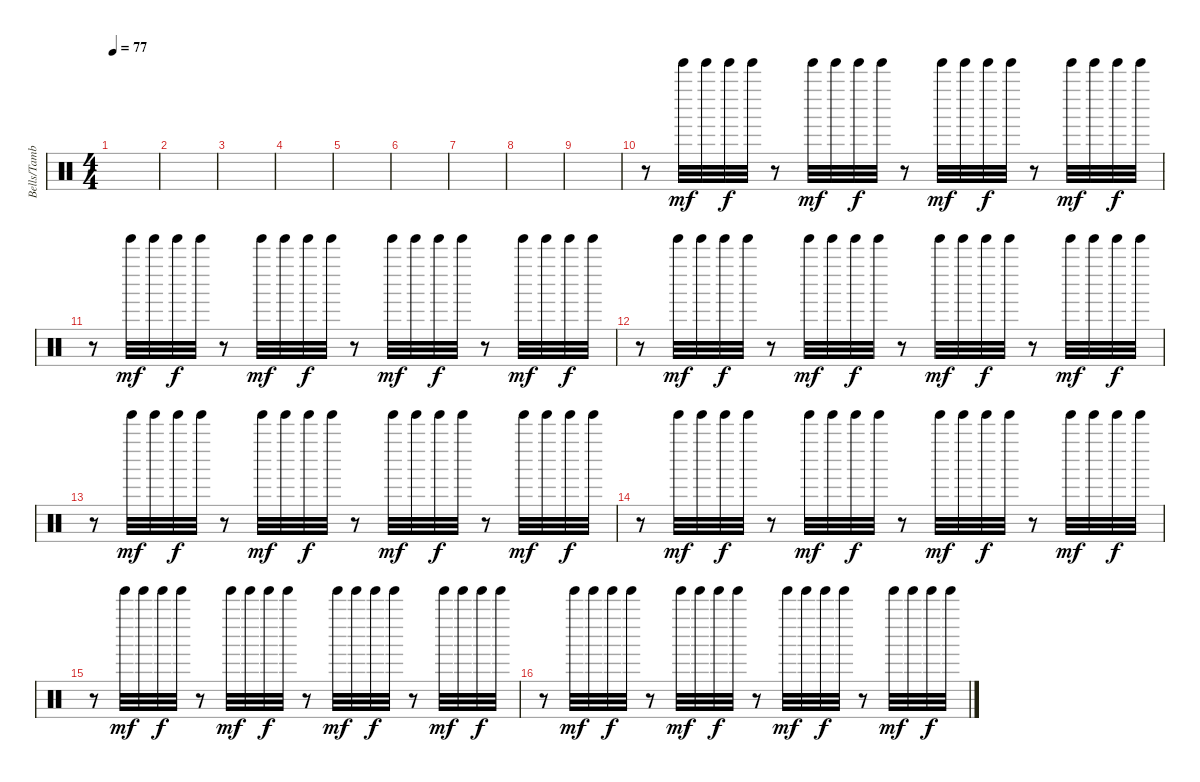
\track ("Bells/Tambo" "Bells/Tamb") {instrument percussion}
\staff {score}
\articulation defaults
\ts (4 4)
\tempo 77
\clef neutral
\ks c
|
|
|
|
|
|
|
|
|
r.8 "Tinkle Bell (hit)".32{dy mf} "Tinkle Bell (hit)".32 "Tinkle Bell (hit)".32{dy f} "Tinkle Bell (hit)".32 r.8 "Tinkle Bell (hit)".32{dy mf} "Tinkle Bell (hit)".32 "Tinkle Bell (hit)".32{dy f} "Tinkle Bell (hit)".32 r.8 "Tinkle Bell (hit)".32{dy mf} "Tinkle Bell (hit)".32 "Tinkle Bell (hit)".32{dy f} "Tinkle Bell (hit)".32 r.8 "Tinkle Bell (hit)".32{dy mf} "Tinkle Bell (hit)".32 "Tinkle Bell (hit)".32{dy f} "Tinkle Bell (hit)".32 |
r.8 "Tinkle Bell (hit)".32{dy mf} "Tinkle Bell (hit)".32 "Tinkle Bell (hit)".32{dy f} "Tinkle Bell (hit)".32 r.8 "Tinkle Bell (hit)".32{dy mf} "Tinkle Bell (hit)".32 "Tinkle Bell (hit)".32{dy f} "Tinkle Bell (hit)".32 r.8 "Tinkle Bell (hit)".32{dy mf} "Tinkle Bell (hit)".32 "Tinkle Bell (hit)".32{dy f} "Tinkle Bell (hit)".32 r.8 "Tinkle Bell (hit)".32{dy mf} "Tinkle Bell (hit)".32 "Tinkle Bell (hit)".32{dy f} "Tinkle Bell (hit)".32 |
r.8 "Tinkle Bell (hit)".32{dy mf} "Tinkle Bell (hit)".32 "Tinkle Bell (hit)".32{dy f} "Tinkle Bell (hit)".32 r.8 "Tinkle Bell (hit)".32{dy mf} "Tinkle Bell (hit)".32 "Tinkle Bell (hit)".32{dy f} "Tinkle Bell (hit)".32 r.8 "Tinkle Bell (hit)".32{dy mf} "Tinkle Bell (hit)".32 "Tinkle Bell (hit)".32{dy f} "Tinkle Bell (hit)".32 r.8 "Tinkle Bell (hit)".32{dy mf} "Tinkle Bell (hit)".32 "Tinkle Bell (hit)".32{dy f} "Tinkle Bell (hit)".32 |
r.8 "Tinkle Bell (hit)".32{dy mf} "Tinkle Bell (hit)".32 "Tinkle Bell (hit)".32{dy f} "Tinkle Bell (hit)".32 r.8 "Tinkle Bell (hit)".32{dy mf} "Tinkle Bell (hit)".32 "Tinkle Bell (hit)".32{dy f} "Tinkle Bell (hit)".32 r.8 "Tinkle Bell (hit)".32{dy mf} "Tinkle Bell (hit)".32 "Tinkle Bell (hit)".32{dy f} "Tinkle Bell (hit)".32 r.8 "Tinkle Bell (hit)".32{dy mf} "Tinkle Bell (hit)".32 "Tinkle Bell (hit)".32{dy f} "Tinkle Bell (hit)".32 |
r.8 "Tinkle Bell (hit)".32{dy mf} "Tinkle Bell (hit)".32 "Tinkle Bell (hit)".32{dy f} "Tinkle Bell (hit)".32 r.8 "Tinkle Bell (hit)".32{dy mf} "Tinkle Bell (hit)".32 "Tinkle Bell (hit)".32{dy f} "Tinkle Bell (hit)".32 r.8 "Tinkle Bell (hit)".32{dy mf} "Tinkle Bell (hit)".32 "Tinkle Bell (hit)".32{dy f} "Tinkle Bell (hit)".32 r.8 "Tinkle Bell (hit)".32{dy mf} "Tinkle Bell (hit)".32 "Tinkle Bell (hit)".32{dy f} "Tinkle Bell (hit)".32 |
r.8 "Tinkle Bell (hit)".32{dy mf} "Tinkle Bell (hit)".32 "Tinkle Bell (hit)".32{dy f} "Tinkle Bell (hit)".32 r.8 "Tinkle Bell (hit)".32{dy mf} "Tinkle Bell (hit)".32 "Tinkle Bell (hit)".32{dy f} "Tinkle Bell (hit)".32 r.8 "Tinkle Bell (hit)".32{dy mf} "Tinkle Bell (hit)".32 "Tinkle Bell (hit)".32{dy f} "Tinkle Bell (hit)".32 r.8 "Tinkle Bell (hit)".32{dy mf} "Tinkle Bell (hit)".32 "Tinkle Bell (hit)".32{dy f} "Tinkle Bell (hit)".32 |
r.8 "Tinkle Bell (hit)".32{dy mf} "Tinkle Bell (hit)".32 "Tinkle Bell (hit)".32{dy f} "Tinkle Bell (hit)".32 r.8 "Tinkle Bell (hit)".32{dy mf} "Tinkle Bell (hit)".32 "Tinkle Bell (hit)".32{dy f} "Tinkle Bell (hit)".32 r.8 "Tinkle Bell (hit)".32{dy mf} "Tinkle Bell (hit)".32 "Tinkle Bell (hit)".32{dy f} "Tinkle Bell (hit)".32 r.8 "Tinkle Bell (hit)".32{dy mf} "Tinkle Bell (hit)".32 "Tinkle Bell (hit)".32{dy f} "Tinkle Bell (hit)".32
